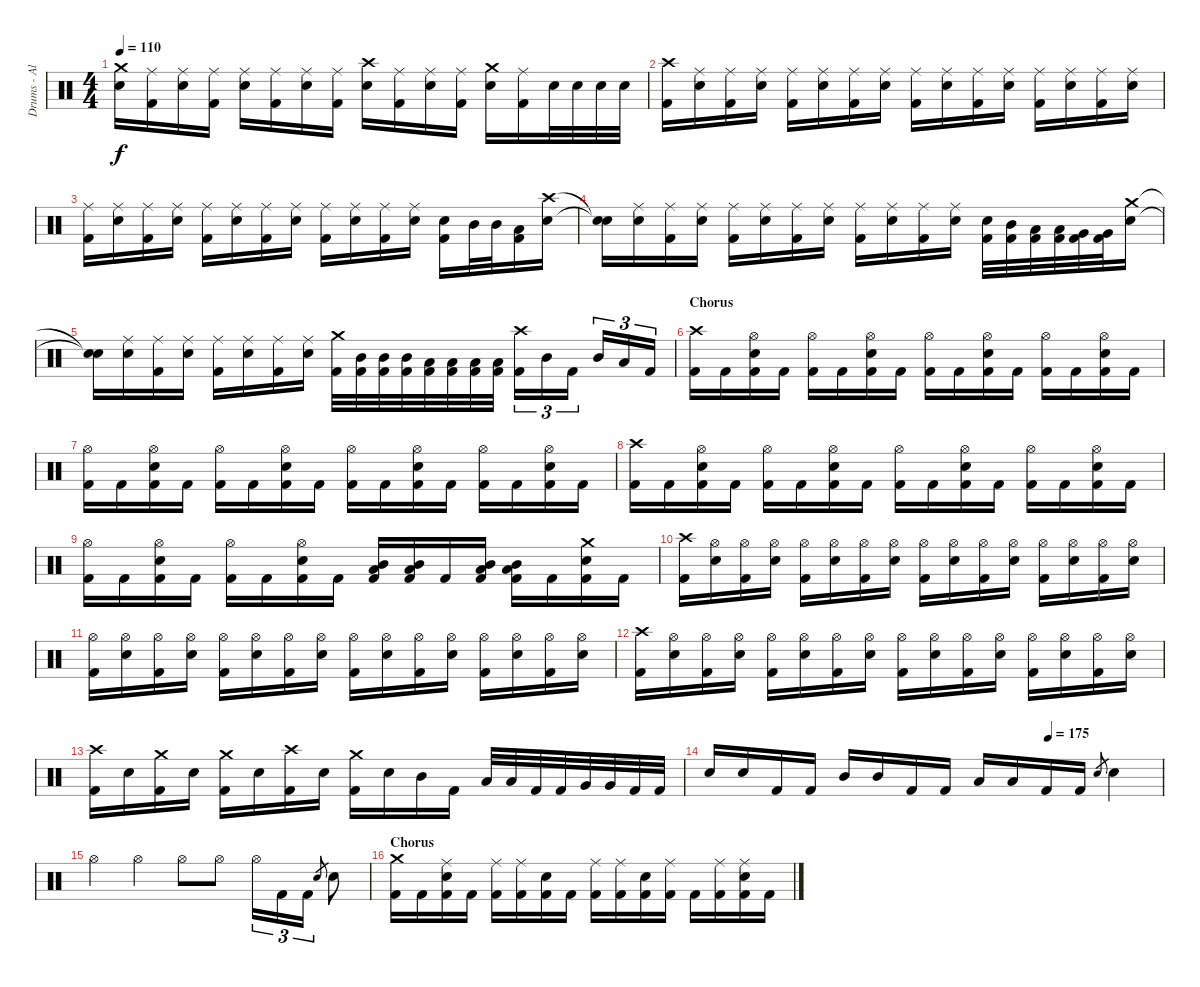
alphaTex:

\track ("Drums - Albin" "Drums - Al") {instrument percussion}
\staff {score}
\articulation defaults
\ts (4 4)
\tempo 110
\clef neutral
\ks c
("Crash medium (hit)"{t} "Snare (hit)"{t}).16{dy f} ("Ride (middle)" "Kick (hit) 2").16 ("Ride (middle)" "Snare (hit) 2").16 ("Ride (middle)" "Kick (hit) 2").16 ("Ride (middle)" "Snare (hit) 2").16 ("Ride (middle)" "Kick (hit) 2").16 ("Ride (middle)" "Snare (hit) 2").16 ("Ride (middle)" "Kick (hit) 2").16 ("Crash high (hit)" "Snare (hit) 2").16 ("Ride (middle)" "Kick (hit) 2").16 ("Ride (middle)" "Snare (hit) 2").16 ("Ride (middle)" "Kick (hit) 2").16 ("Crash medium (hit)" "Snare (hit) 2").16 ("Ride (middle)" "Kick (hit) 2").16 "Snare (hit) 2".32 "Snare (hit) 2".32 "Snare (hit) 2".32 "Snare (hit) 2".32 |
("Crash high (hit)" "Kick (hit) 2").16 ("Ride (middle)" "Snare (hit) 2").16 ("Ride (middle)" "Kick (hit) 2").16 ("Ride (middle)" "Snare (hit) 2").16 ("Ride (middle)" "Kick (hit) 2").16 ("Ride (middle)" "Snare (hit) 2").16 ("Ride (middle)" "Kick (hit) 2").16 ("Ride (middle)" "Snare (hit) 2").16 ("Ride (middle)" "Kick (hit) 2").16 ("Ride (middle)" "Snare (hit) 2").16 ("Ride (middle)" "Kick (hit) 2").16 ("Ride (middle)" "Snare (hit) 2").16 ("Ride (middle)" "Kick (hit) 2").16 ("Ride (middle)" "Snare (hit) 2").16 ("Ride (middle)" "Kick (hit) 2").16 ("Ride (middle)" "Snare (hit) 2").16 |
("Ride (middle)" "Kick (hit) 2").16 ("Ride (middle)" "Snare (hit) 2").16 ("Ride (middle)" "Kick (hit) 2").16 ("Ride (middle)" "Snare (hit) 2").16 ("Ride (middle)" "Kick (hit) 2").16 ("Ride (middle)" "Snare (hit) 2").16 ("Ride (middle)" "Kick (hit) 2").16 ("Ride (middle)" "Snare (hit) 2").16 ("Ride (middle)" "Kick (hit) 2").16 ("Ride (middle)" "Snare (hit) 2").16 ("Ride (middle)" "Kick (hit) 2").16 ("Ride (middle)" "Snare (hit) 2").16 ("Snare (hit) 2" "Kick (hit) 2").16 "Mid Tom (hit)".32 "Mid Tom (hit)".32 ("Low Tom (hit)" "Kick (hit) 2").16 ("Crash high (hit)" "Snare (hit) 2").16 |
("Snare (hit)"{t} "Snare (hit)"{t}).16 ("Ride (middle)" "Snare (hit) 2").16 ("Ride (middle)" "Kick (hit) 2").16 ("Ride (middle)" "Snare (hit) 2").16 ("Ride (middle)" "Kick (hit) 2").16 ("Ride (middle)" "Snare (hit) 2").16 ("Ride (middle)" "Kick (hit) 2").16 ("Ride (middle)" "Snare (hit) 2").16 ("Ride (middle)" "Kick (hit) 2").16 ("Ride (middle)" "Snare (hit) 2").16 ("Ride (middle)" "Kick (hit) 2").16 ("Ride (middle)" "Snare (hit) 2").16 ("Snare (hit) 2" "Kick (hit) 2").32 ("Mid Tom (hit)" "Kick (hit) 2").32 ("Low Tom (hit)" "Kick (hit) 2").32 ("Low Tom (hit)" "Kick (hit) 2").32 ("Very Low Tom (hit)" "Kick (hit) 2").32 ("Very Low Tom (hit)" "Kick (hit) 2").32 ("Crash medium (hit)" "Snare (hit) 2").16 |
("Snare (hit)"{t} "Snare (hit)"{t}).16 ("Ride (middle)" "Snare (hit) 2").16 ("Ride (middle)" "Kick (hit) 2").16 ("Ride (middle)" "Snare (hit) 2").16 ("Ride (middle)" "Kick (hit) 2").16 ("Ride (middle)" "Snare (hit) 2").16 ("Ride (middle)" "Kick (hit) 2").16 ("Ride (middle)" "Snare (hit) 2").16 ("Crash medium (hit)" "Kick (hit) 2").32 ("Mid Tom (hit)" "Kick (hit) 2").32 ("Mid Tom (hit)" "Kick (hit) 2").32 ("Mid Tom (hit)" "Kick (hit) 2").32 ("Low Tom (hit)" "Kick (hit) 2").32 ("Low Tom (hit)" "Kick (hit) 2").32 ("Low Tom (hit)" "Kick (hit) 2").32 ("Low Tom (hit)" "Kick (hit) 2").32 ("Crash high (hit)" "Kick (hit) 2").16{tu (3 2)} "Mid Tom (hit)".16{tu (3 2)} "Kick (hit) 2".16{tu (3 2)} "Mid Tom (hit)".16{tu (3 2)} "Low Tom (hit)".16{tu (3 2)} "Kick (hit) 2".16{tu (3 2)} |
\section ("" "Chorus")
("Crash high (hit)" "Kick (hit) 2").16 "Kick (hit) 2".16 ("Hi-Hat (open)" "Snare (hit) 2" "Kick (hit) 2").16 "Kick (hit) 2".16 ("Hi-Hat (open)" "Kick (hit) 2").16 "Kick (hit) 2".16 ("Hi-Hat (open)" "Snare (hit) 2" "Kick (hit) 2").16 "Kick (hit) 2".16 ("Hi-Hat (open)" "Kick (hit) 2").16 "Kick (hit) 2".16 ("Hi-Hat (open)" "Snare (hit) 2" "Kick (hit) 2").16 "Kick (hit) 2".16 ("Hi-Hat (open)" "Kick (hit) 2").16 "Kick (hit) 2".16 ("Hi-Hat (open)" "Snare (hit) 2" "Kick (hit) 2").16 "Kick (hit) 2".16 |
("Hi-Hat (open)" "Kick (hit) 2").16 "Kick (hit) 2".16 ("Hi-Hat (open)" "Snare (hit) 2" "Kick (hit) 2").16 "Kick (hit) 2".16 ("Hi-Hat (open)" "Kick (hit) 2").16 "Kick (hit) 2".16 ("Hi-Hat (open)" "Snare (hit) 2" "Kick (hit) 2").16 "Kick (hit) 2".16 ("Hi-Hat (open)" "Kick (hit) 2").16 "Kick (hit) 2".16 ("Hi-Hat (open)" "Snare (hit) 2" "Kick (hit) 2").16 "Kick (hit) 2".16 ("Hi-Hat (open)" "Kick (hit) 2").16 "Kick (hit) 2".16 ("Hi-Hat (open)" "Snare (hit) 2" "Kick (hit) 2").16 "Kick (hit) 2".16 |
("Crash high (hit)" "Kick (hit) 2").16 "Kick (hit) 2".16 ("Hi-Hat (open)" "Snare (hit) 2" "Kick (hit) 2").16 "Kick (hit) 2".16 ("Hi-Hat (open)" "Kick (hit) 2").16 "Kick (hit) 2".16 ("Hi-Hat (open)" "Snare (hit) 2" "Kick (hit) 2").16 "Kick (hit) 2".16 ("Hi-Hat (open)" "Kick (hit) 2").16 "Kick (hit) 2".16 ("Hi-Hat (open)" "Snare (hit) 2" "Kick (hit) 2").16 "Kick (hit) 2".16 ("Hi-Hat (open)" "Kick (hit) 2").16 "Kick (hit) 2".16 ("Hi-Hat (open)" "Snare (hit) 2" "Kick (hit) 2").16 "Kick (hit) 2".16 |
("Hi-Hat (open)" "Kick (hit) 2").16 "Kick (hit) 2".16 ("Hi-Hat (open)" "Snare (hit) 2" "Kick (hit) 2").16 "Kick (hit) 2".16 ("Hi-Hat (open)" "Kick (hit) 2").16 "Kick (hit) 2".16 ("Hi-Hat (open)" "Snare (hit) 2" "Kick (hit) 2").16 "Kick (hit) 2".16 ("Mid Tom (hit)" "Low Tom (hit)" "Kick (hit) 2").16 ("Mid Tom (hit)" "Low Tom (hit)" "Kick (hit) 2").16 "Kick (hit) 2".16 ("Mid Tom (hit)" "Low Tom (hit)" "Kick (hit) 2").16 ("Mid Tom (hit)" "Low Tom (hit)" "Kick (hit) 2").16 "Kick (hit) 2".16 ("Crash medium (hit)" "Snare (hit) 2" "Kick (hit) 2").16 "Kick (hit) 2".16 |
("Crash high (hit)" "Kick (hit) 2").16 ("Hi-Hat (open)" "Snare (hit) 2").16 ("Hi-Hat (open)" "Kick (hit) 2").16 ("Hi-Hat (open)" "Snare (hit) 2").16 ("Hi-Hat (open)" "Kick (hit) 2").16 ("Hi-Hat (open)" "Snare (hit) 2").16 ("Hi-Hat (open)" "Kick (hit) 2").16 ("Hi-Hat (open)" "Snare (hit) 2").16 ("Hi-Hat (open)" "Kick (hit) 2").16 ("Hi-Hat (open)" "Snare (hit) 2").16 ("Hi-Hat (open)" "Kick (hit) 2").16 ("Hi-Hat (open)" "Snare (hit) 2").16 ("Hi-Hat (open)" "Kick (hit) 2").16 ("Hi-Hat (open)" "Snare (hit) 2").16 ("Hi-Hat (open)" "Kick (hit) 2").16 ("Hi-Hat (open)" "Snare (hit) 2").16 |
("Hi-Hat (open)" "Kick (hit) 2").16 ("Hi-Hat (open)" "Snare (hit) 2").16 ("Hi-Hat (open)" "Kick (hit) 2").16 ("Hi-Hat (open)" "Snare (hit) 2").16 ("Hi-Hat (open)" "Kick (hit) 2").16 ("Hi-Hat (open)" "Snare (hit) 2").16 ("Hi-Hat (open)" "Kick (hit) 2").16 ("Hi-Hat (open)" "Snare (hit) 2").16 ("Hi-Hat (open)" "Kick (hit) 2").16 ("Hi-Hat (open)" "Snare (hit) 2").16 ("Hi-Hat (open)" "Kick (hit) 2").16 ("Hi-Hat (open)" "Snare (hit) 2").16 ("Hi-Hat (open)" "Kick (hit) 2").16 ("Hi-Hat (open)" "Snare (hit) 2").16 ("Hi-Hat (open)" "Kick (hit) 2").16 ("Hi-Hat (open)" "Snare (hit) 2").16 |
("Crash high (hit)" "Kick (hit) 2").16 ("Hi-Hat (open)" "Snare (hit) 2").16 ("Hi-Hat (open)" "Kick (hit) 2").16 ("Hi-Hat (open)" "Snare (hit) 2").16 ("Hi-Hat (open)" "Kick (hit) 2").16 ("Hi-Hat (open)" "Snare (hit) 2").16 ("Hi-Hat (open)" "Kick (hit) 2").16 ("Hi-Hat (open)" "Snare (hit) 2").16 ("Hi-Hat (open)" "Kick (hit) 2").16 ("Hi-Hat (open)" "Snare (hit) 2").16 ("Hi-Hat (open)" "Kick (hit) 2").16 ("Hi-Hat (open)" "Snare (hit) 2").16 ("Hi-Hat (open)" "Kick (hit) 2").16 ("Hi-Hat (open)" "Snare (hit) 2").16 ("Hi-Hat (open)" "Kick (hit) 2").16 ("Hi-Hat (open)" "Snare (hit) 2").16 |
("Crash high (hit)" "Kick (hit) 2").16 "Snare (hit) 2".16 ("Crash medium (hit)" "Kick (hit) 2").16 "Snare (hit) 2".16 ("Crash medium (hit)" "Kick (hit) 2").16 "Snare (hit) 2".16 ("Crash high (hit)" "Kick (hit) 2").16 "Snare (hit) 2".16 ("Crash medium (hit)" "Kick (hit) 2").16 "Snare (hit) 2".16 "Mid Tom (hit)".16 "Kick (hit) 2".16 "Low Tom (hit)".32 "Low Tom (hit)".32 "Kick (hit) 2".32 "Kick (hit) 2".32 "Very Low Tom (hit)".32 "Very Low Tom (hit)".32 "Kick (hit) 2".32 "Kick (hit) 2".32 |
\tempo (175 0.75)
"Snare (hit) 2".16 "Snare (hit) 2".16 "Kick (hit) 2".16 "Kick (hit) 2".16 "Mid Tom (hit)".16 "Mid Tom (hit)".16 "Kick (hit) 2".16 "Kick (hit) 2".16 "Low Tom (hit)".16 "Low Tom (hit)".16 "Kick (hit) 2".16 "Kick (hit) 2".16 "Snare (hit) 2".8{gr} "Snare (hit) 2".4 |
"Hi-Hat (open)".4 "Hi-Hat (open)".4 "Hi-Hat (open)".8 "Hi-Hat (open)".8 "Hi-Hat (open)".16{tu (3 2)} "Kick (hit) 2".16{tu (3 2)} "Kick (hit) 2".16{tu (3 2)} "Snare (hit) 2".8{gr} "Snare (hit) 2".8 |
\section ("" "Chorus")
("Crash medium (hit)" "Kick (hit) 2").16 "Kick (hit) 2".16 ("Ride (middle)" "Snare (hit) 2" "Kick (hit) 2").16 "Kick (hit) 2".16 ("Ride (middle)" "Kick (hit) 2").16 ("Ride (middle)" "Kick (hit) 2").16 ("Snare (hit) 2" "Kick (hit) 2").16 "Kick (hit) 2".16 ("Ride (middle)" "Kick (hit) 2").16 ("Ride (middle)" "Kick (hit) 2").16 ("Snare (hit) 2" "Kick (hit) 2").16 ("Ride (middle)" "Kick (hit) 2").16 "Kick (hit) 2".16 ("Ride (middle)" "Kick (hit) 2").16 ("Ride (middle)" "Snare (hit) 2" "Kick (hit) 2").16 "Kick (hit) 2".16
